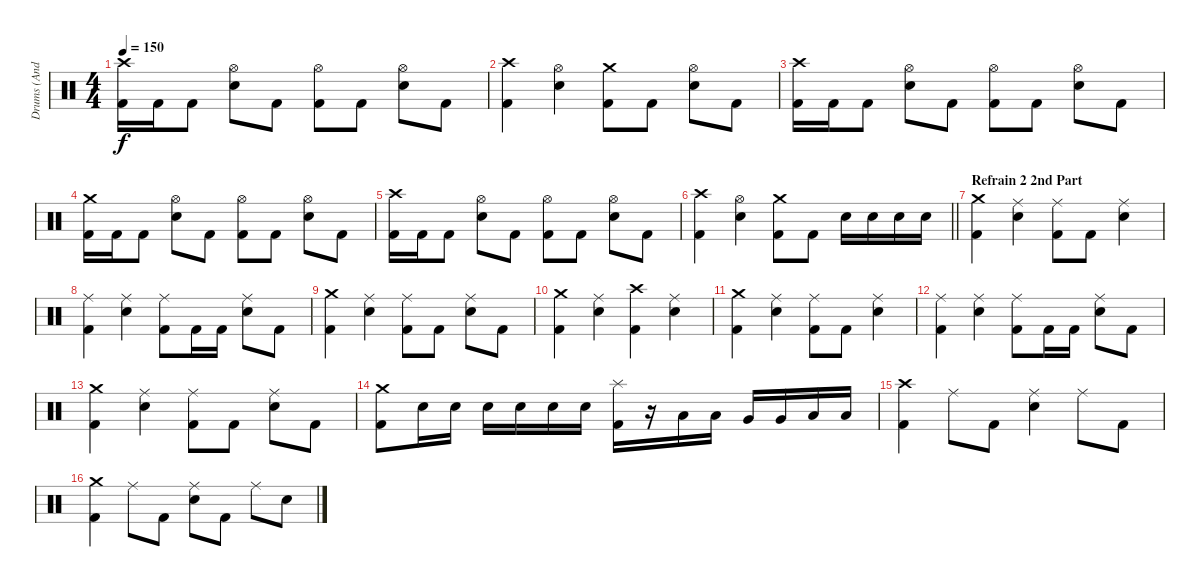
\track ("Drums (Andy C)" "Drums (And") {instrument percussion}
\staff
\articulation defaults
\ts (4 4)
\tempo 150
\clef neutral
\ks c
("Crash high (hit)" "Kick (hit) 2").16{dy f} "Kick (hit) 2".16 "Kick (hit) 2".8 ("Hi-Hat (open)" "Electric Snare (hit)").8 "Kick (hit) 2".8 ("Hi-Hat (open)" "Kick (hit) 2").8 "Kick (hit) 2".8 ("Hi-Hat (open)" "Electric Snare (hit)").8 "Kick (hit) 2".8 |
("Crash high (hit)" "Kick (hit) 2").4 ("Hi-Hat (open)" "Electric Snare (hit)").4 ("Crash medium (hit)" "Kick (hit) 2").8 "Kick (hit) 2".8 ("Hi-Hat (open)" "Electric Snare (hit)").8 "Kick (hit) 2".8 |
("Crash high (hit)" "Kick (hit) 2").16 "Kick (hit) 2".16 "Kick (hit) 2".8 ("Hi-Hat (open)" "Electric Snare (hit)").8 "Kick (hit) 2".8 ("Hi-Hat (open)" "Kick (hit) 2").8 "Kick (hit) 2".8 ("Hi-Hat (open)" "Electric Snare (hit)").8 "Kick (hit) 2".8 |
("Crash medium (hit)" "Kick (hit) 2").16 "Kick (hit) 2".16 "Kick (hit) 2".8 ("Hi-Hat (open)" "Electric Snare (hit)").8 "Kick (hit) 2".8 ("Hi-Hat (open)" "Kick (hit) 2").8 "Kick (hit) 2".8 ("Hi-Hat (open)" "Electric Snare (hit)").8 "Kick (hit) 2".8 |
("Crash high (hit)" "Kick (hit) 2").16 "Kick (hit) 2".16 "Kick (hit) 2".8 ("Hi-Hat (open)" "Electric Snare (hit)").8 "Kick (hit) 2".8 ("Hi-Hat (open)" "Kick (hit) 2").8 "Kick (hit) 2".8 ("Hi-Hat (open)" "Electric Snare (hit)").8 "Kick (hit) 2".8 |
\barLineRight lightlight
("Crash high (hit)" "Kick (hit) 2").4 ("Hi-Hat (open)" "Electric Snare (hit)").4 ("Crash medium (hit)" "Kick (hit) 2").8 "Kick (hit) 2".8 "Electric Snare (hit)".16 "Electric Snare (hit)".16 "Electric Snare (hit)".16 "Electric Snare (hit)".16 |
\section ("" "Refrain 2 2nd Part")
("Crash medium (hit)" "Kick (hit) 2").4 ("Ride (middle)" "Electric Snare (hit)").4 ("Ride (middle)" "Kick (hit) 2").8 "Kick (hit) 2".8 ("Ride (middle)" "Electric Snare (hit)").4 |
("Ride (middle)" "Kick (hit) 2").4 ("Ride (middle)" "Electric Snare (hit)").4 ("Ride (middle)" "Kick (hit) 2").8 "Kick (hit) 2".16 "Kick (hit) 2".16 ("Ride (middle)" "Electric Snare (hit)").8 "Kick (hit) 2".8 |
("Crash medium (hit)" "Kick (hit) 2").4 ("Ride (middle)" "Electric Snare (hit)").4 ("Ride (middle)" "Kick (hit) 2").8 "Kick (hit) 2".8 ("Ride (middle)" "Electric Snare (hit)").8 "Kick (hit) 2".8 |
("Crash medium (hit)" "Kick (hit) 2").4 ("Ride (middle)" "Electric Snare (hit)").4 ("Crash high (hit)" "Kick (hit) 2").4 ("Ride (middle)" "Electric Snare (hit)").4 |
("Crash medium (hit)" "Kick (hit) 2").4 ("Ride (middle)" "Electric Snare (hit)").4 ("Ride (middle)" "Kick (hit) 2").8 "Kick (hit) 2".8 ("Ride (middle)" "Electric Snare (hit)").4 |
("Ride (middle)" "Kick (hit) 2").4 ("Ride (middle)" "Electric Snare (hit)").4 ("Ride (middle)" "Kick (hit) 2").8 "Kick (hit) 2".16 "Kick (hit) 2".16 ("Ride (middle)" "Electric Snare (hit)").8 "Kick (hit) 2".8 |
("Crash medium (hit)" "Kick (hit) 2").4 ("Ride (middle)" "Electric Snare (hit)").4 ("Ride (middle)" "Kick (hit) 2").8 "Kick (hit) 2".8 ("Ride (middle)" "Electric Snare (hit)").8 "Kick (hit) 2".8 |
("Crash medium (hit)" "Kick (hit) 2").8 "Electric Snare (hit)".16 "Electric Snare (hit)".16 "Electric Snare (hit)".16 "Electric Snare (hit)".16 "Electric Snare (hit)".16 "Electric Snare (hit)".16 ("Splash (hit)" "Kick (hit) 2").16 r.16 "Low Tom (hit)".16 "Low Tom (hit)".16 "Very Low Tom (hit)".16 "Very Low Tom (hit)".16 "Low Floor Tom (hit)".16 "Low Floor Tom (hit)".16 |
("Crash high (hit)" "Kick (hit) 2").4 "Ride (middle)".8 "Kick (hit) 2".8 ("Ride (middle)" "Electric Snare (hit)").4 "Ride (middle)".8 "Kick (hit) 2".8 |
("Crash medium (hit)" "Kick (hit) 2").4 "Ride (middle)".8 "Kick (hit) 2".8 ("Ride (middle)" "Electric Snare (hit)").8 "Kick (hit) 2".8 "Ride (middle)".8 "Electric Snare (hit)".8
